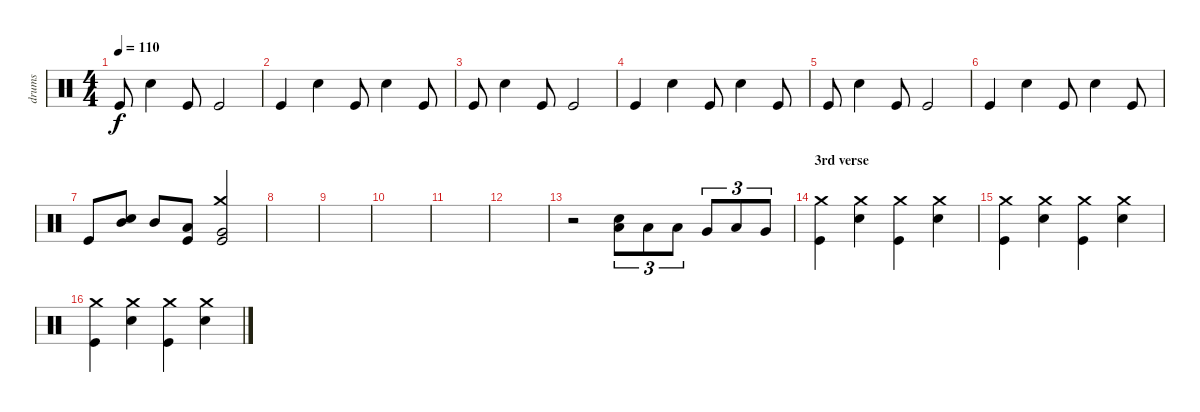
\track ("drums" "drums") {instrument percussion}
\staff {score}
\articulation defaults
\ts (4 4)
\tempo 110
\clef neutral
\ks c "Kick (hit)".8{dy f} "Snare (hit) 2".4 "Kick (hit)".8 "Kick (hit)".2
|
"Kick (hit)".4 "Snare (hit) 2".4 "Kick (hit)".8 "Snare (hit) 2".4 "Kick (hit)".8 |
"Kick (hit)".8 "Snare (hit) 2".4 "Kick (hit)".8 "Kick (hit)".2 |
"Kick (hit)".4 "Snare (hit) 2".4 "Kick (hit)".8 "Snare (hit) 2".4 "Kick (hit)".8 |
"Kick (hit)".8 "Snare (hit) 2".4 "Kick (hit)".8 "Kick (hit)".2 |
"Kick (hit)".4 "Snare (hit) 2".4 "Kick (hit)".8 "Snare (hit) 2".4 "Kick (hit)".8 |
"Kick (hit)".8 ("Mid Tom (hit)" "Snare (hit) 2").8 "Mid Tom (hit)".8 ("Low Tom (hit)" "Kick (hit)").8 ("Crash medium (hit)" "Very Low Tom (hit)" "Kick (hit)").2 |
|
|
\section ("" "")
|
|
|
r.2 ("Low Tom (hit)" "Snare (hit) 2").8{tu (3 2)} "Low Tom (hit)".8{tu (3 2)} "Low Tom (hit)".8{tu (3 2)} "Very Low Tom (hit)".8{tu (3 2)} "Low Tom (hit)".8{tu (3 2)} "Very Low Tom (hit)".8{tu (3 2)} |
\section ("" "3rd verse")
("Crash medium (hit)" "Kick (hit)").4 ("Crash medium (hit)" "Snare (hit) 2").4 ("Crash medium (hit)" "Kick (hit)").4 ("Crash medium (hit)" "Snare (hit) 2").4 |
("Crash medium (hit)" "Kick (hit)").4 ("Crash medium (hit)" "Snare (hit) 2").4 ("Crash medium (hit)" "Kick (hit)").4 ("Crash medium (hit)" "Snare (hit) 2").4 |
("Crash medium (hit)" "Kick (hit)").4 ("Crash medium (hit)" "Snare (hit) 2").4 ("Crash medium (hit)" "Kick (hit)").4 ("Crash medium (hit)" "Snare (hit) 2").4
